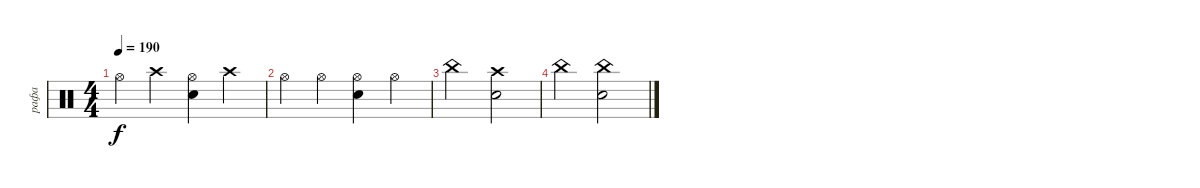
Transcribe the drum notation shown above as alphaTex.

\track ("рафа" "рафа") {instrument percussion}
\staff {score}
\articulation defaults
\ts (4 4)
\tempo 190
\clef neutral
\ks c "Hi-Hat (open)".4{dy f} "Crash high (hit)".4
("Hi-Hat (open)" "Snare (hit) 2").4 "Crash high (hit)".4 |
"Hi-Hat (open)".4 "Hi-Hat (open)".4 ("Hi-Hat (open)" "Snare (hit) 2").4 "Hi-Hat (open)".4 |
"China (hit)".2 ("Crash high (hit)" "Snare (hit) 2").2 |
"China (hit)".2 ("China (hit)" "Snare (hit) 2").2
